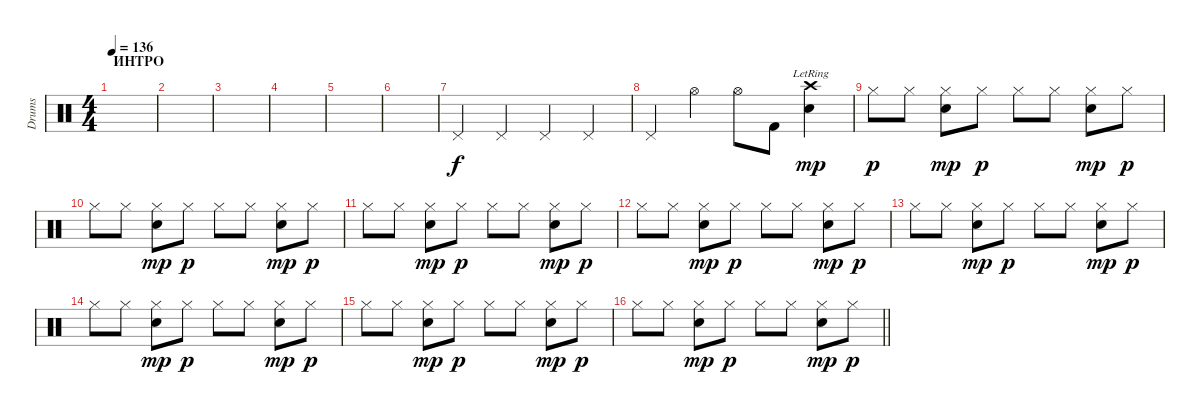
\track ("Drums" "Drums") {instrument percussion}
\staff {score}
\articulation defaults
\ts (4 4)
\section ("" "ИНТРО")
\tempo 136
\clef neutral
\ks c
|
|
|
|
|
|
"Pedal Hi-Hat (hit)".4 "Pedal Hi-Hat (hit)".4 "Pedal Hi-Hat (hit)".4 "Pedal Hi-Hat (hit)".4 |
"Pedal Hi-Hat (hit)".4 "Hi-Hat (open)".4 "Hi-Hat (open)".8 "Kick (hit) 2".8{dy f} ("Crash high (hit)"{lr} "Electric Snare (hit)").4{dy mp} |
"Hi-Hat (closed)".8{dy p} "Hi-Hat (closed)".8 ("Hi-Hat (closed)" "Electric Snare (hit)").8{dy mp} "Hi-Hat (closed)".8{dy p} "Hi-Hat (closed)".8 "Hi-Hat (closed)".8 ("Hi-Hat (closed)" "Electric Snare (hit)").8{dy mp} "Hi-Hat (closed)".8{dy p} |
"Hi-Hat (closed)".8 "Hi-Hat (closed)".8 ("Hi-Hat (closed)" "Electric Snare (hit)").8{dy mp} "Hi-Hat (closed)".8{dy p} "Hi-Hat (closed)".8 "Hi-Hat (closed)".8 ("Hi-Hat (closed)" "Electric Snare (hit)").8{dy mp} "Hi-Hat (closed)".8{dy p} |
"Hi-Hat (closed)".8 "Hi-Hat (closed)".8 ("Hi-Hat (closed)" "Electric Snare (hit)").8{dy mp} "Hi-Hat (closed)".8{dy p} "Hi-Hat (closed)".8 "Hi-Hat (closed)".8 ("Hi-Hat (closed)" "Electric Snare (hit)").8{dy mp} "Hi-Hat (closed)".8{dy p} |
"Hi-Hat (closed)".8 "Hi-Hat (closed)".8 ("Hi-Hat (closed)" "Electric Snare (hit)").8{dy mp} "Hi-Hat (closed)".8{dy p} "Hi-Hat (closed)".8 "Hi-Hat (closed)".8 ("Hi-Hat (closed)" "Electric Snare (hit)").8{dy mp} "Hi-Hat (closed)".8{dy p} |
"Hi-Hat (closed)".8 "Hi-Hat (closed)".8 ("Hi-Hat (closed)" "Electric Snare (hit)").8{dy mp} "Hi-Hat (closed)".8{dy p} "Hi-Hat (closed)".8 "Hi-Hat (closed)".8 ("Hi-Hat (closed)" "Electric Snare (hit)").8{dy mp} "Hi-Hat (closed)".8{dy p} |
"Hi-Hat (closed)".8 "Hi-Hat (closed)".8 ("Hi-Hat (closed)" "Electric Snare (hit)").8{dy mp} "Hi-Hat (closed)".8{dy p} "Hi-Hat (closed)".8 "Hi-Hat (closed)".8 ("Hi-Hat (closed)" "Electric Snare (hit)").8{dy mp} "Hi-Hat (closed)".8{dy p} |
"Hi-Hat (closed)".8 "Hi-Hat (closed)".8 ("Hi-Hat (closed)" "Electric Snare (hit)").8{dy mp} "Hi-Hat (closed)".8{dy p} "Hi-Hat (closed)".8 "Hi-Hat (closed)".8 ("Hi-Hat (closed)" "Electric Snare (hit)").8{dy mp} "Hi-Hat (closed)".8{dy p} |
\barLineRight lightlight "Hi-Hat (closed)".8 "Hi-Hat (closed)".8
("Hi-Hat (closed)" "Electric Snare (hit)").8{dy mp} "Hi-Hat (closed)".8{dy p} "Hi-Hat (closed)".8 "Hi-Hat (closed)".8 ("Hi-Hat (closed)" "Electric Snare (hit)").8{dy mp} "Hi-Hat (closed)".8{dy p}
